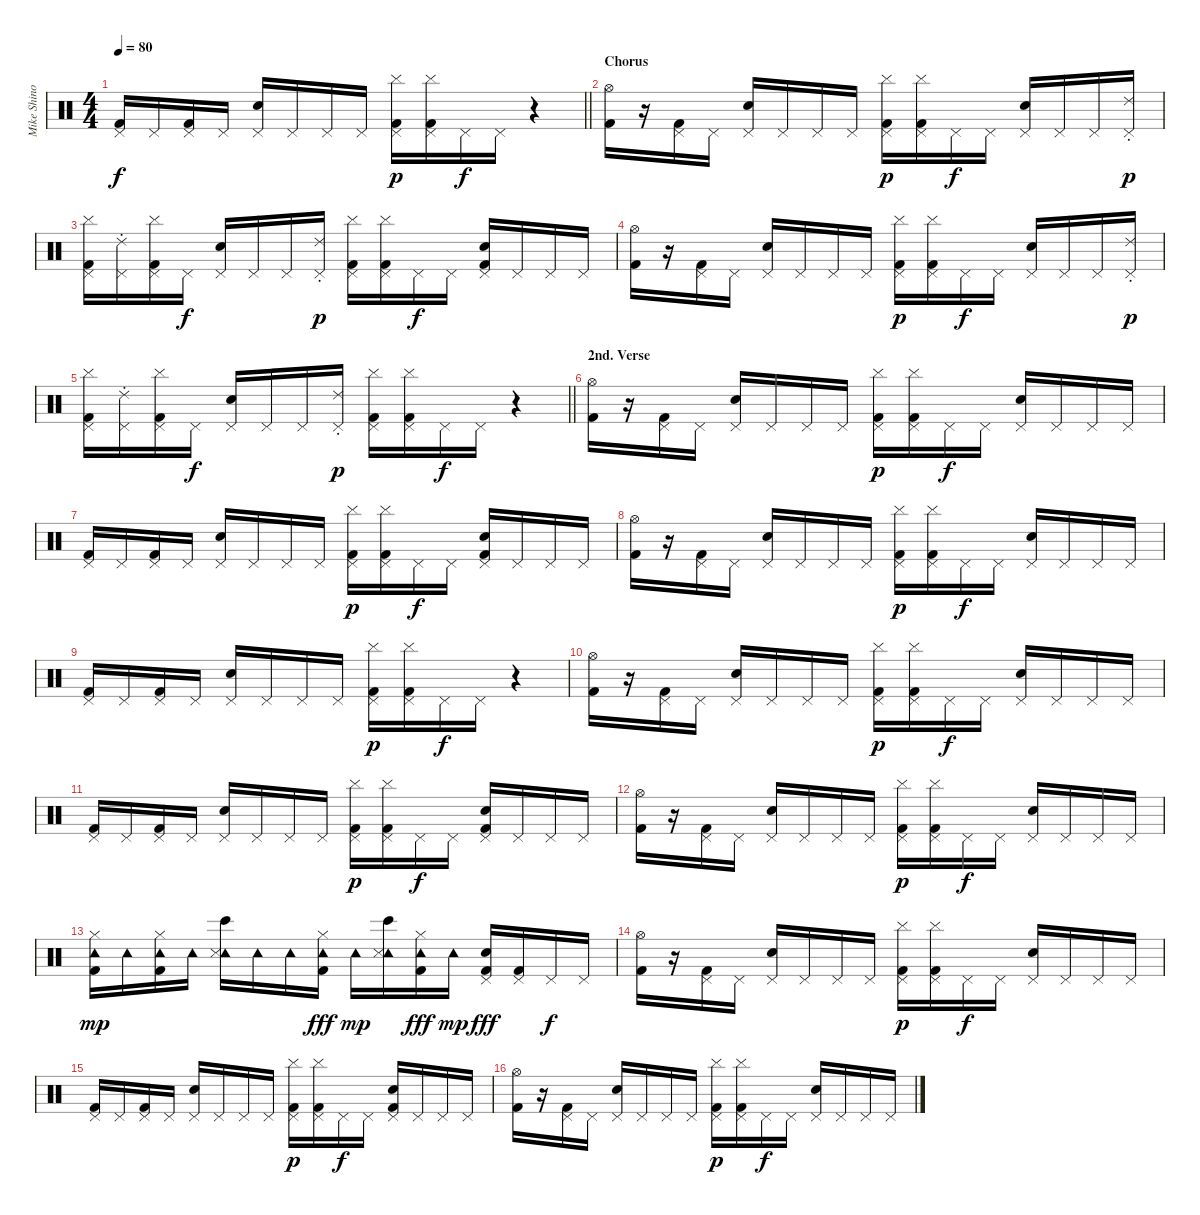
\track ("Mike Shinoda - Percussion" "Mike Shino") {instrument percussion}
\staff {score}
\articulation defaults
\ts (4 4)
\tempo 80
\clef neutral
\barLineRight lightlight
\ks c
("Pedal Hi-Hat (hit)" "Kick (hit) 2").16{dy f} "Pedal Hi-Hat (hit)".16 ("Pedal Hi-Hat (hit)" "Kick (hit) 2").16 "Pedal Hi-Hat (hit)".16 ("Pedal Hi-Hat (hit)" "Electric Snare (hit)").16 "Pedal Hi-Hat (hit)".16 "Pedal Hi-Hat (hit)".16 "Pedal Hi-Hat (hit)".16 ("Pedal Hi-Hat (hit)" "Cymbal (hit)" "Kick (hit) 2").16{dy p} ("Pedal Hi-Hat (hit)" "Cymbal (hit)" "Kick (hit) 2").16 "Pedal Hi-Hat (hit)".16{dy f} "Pedal Hi-Hat (hit)".16 r.4 |
\section ("" "Chorus")
("Hi-Hat (open)" "Kick (hit) 2").16 r.16 ("Pedal Hi-Hat (hit)" "Kick (hit) 2").16 "Pedal Hi-Hat (hit)".16 ("Pedal Hi-Hat (hit)" "Electric Snare (hit)").16 "Pedal Hi-Hat (hit)".16 "Pedal Hi-Hat (hit)".16 "Pedal Hi-Hat (hit)".16 ("Pedal Hi-Hat (hit)" "Cymbal (hit)" "Kick (hit) 2").16{dy p} ("Pedal Hi-Hat (hit)" "Cymbal (hit)" "Kick (hit) 2").16 "Pedal Hi-Hat (hit)".16{dy f} "Pedal Hi-Hat (hit)".16 ("Pedal Hi-Hat (hit)" "Electric Snare (hit)").16 "Pedal Hi-Hat (hit)".16 "Pedal Hi-Hat (hit)".16 ("Pedal Hi-Hat (hit)" "Ride (choke) 2").16{dy p} |
("Pedal Hi-Hat (hit)" "Cymbal (hit)" "Kick (hit) 2").16 ("Pedal Hi-Hat (hit)" "Ride (choke) 2").16 ("Pedal Hi-Hat (hit)" "Cymbal (hit)" "Kick (hit) 2").16 "Pedal Hi-Hat (hit)".16{dy f} ("Pedal Hi-Hat (hit)" "Electric Snare (hit)").16 "Pedal Hi-Hat (hit)".16 "Pedal Hi-Hat (hit)".16 ("Pedal Hi-Hat (hit)" "Ride (choke) 2").16{dy p} ("Pedal Hi-Hat (hit)" "Cymbal (hit)" "Kick (hit) 2").16 ("Pedal Hi-Hat (hit)" "Cymbal (hit)" "Kick (hit) 2").16 "Pedal Hi-Hat (hit)".16{dy f} "Pedal Hi-Hat (hit)".16 ("Pedal Hi-Hat (hit)" "Electric Snare (hit)" "Kick (hit) 2").16 "Pedal Hi-Hat (hit)".16 "Pedal Hi-Hat (hit)".16 "Pedal Hi-Hat (hit)".16 |
("Hi-Hat (open)" "Kick (hit) 2").16 r.16 ("Pedal Hi-Hat (hit)" "Kick (hit) 2").16 "Pedal Hi-Hat (hit)".16 ("Pedal Hi-Hat (hit)" "Electric Snare (hit)").16 "Pedal Hi-Hat (hit)".16 "Pedal Hi-Hat (hit)".16 "Pedal Hi-Hat (hit)".16 ("Pedal Hi-Hat (hit)" "Cymbal (hit)" "Kick (hit) 2").16{dy p} ("Pedal Hi-Hat (hit)" "Cymbal (hit)" "Kick (hit) 2").16 "Pedal Hi-Hat (hit)".16{dy f} "Pedal Hi-Hat (hit)".16 ("Pedal Hi-Hat (hit)" "Electric Snare (hit)").16 "Pedal Hi-Hat (hit)".16 "Pedal Hi-Hat (hit)".16 ("Pedal Hi-Hat (hit)" "Ride (choke) 2").16{dy p} |
\barLineRight lightlight
("Pedal Hi-Hat (hit)" "Cymbal (hit)" "Kick (hit) 2").16 ("Pedal Hi-Hat (hit)" "Ride (choke) 2").16 ("Pedal Hi-Hat (hit)" "Cymbal (hit)" "Kick (hit) 2").16 "Pedal Hi-Hat (hit)".16{dy f} ("Pedal Hi-Hat (hit)" "Electric Snare (hit)").16 "Pedal Hi-Hat (hit)".16 "Pedal Hi-Hat (hit)".16 ("Pedal Hi-Hat (hit)" "Ride (choke) 2").16{dy p} ("Pedal Hi-Hat (hit)" "Cymbal (hit)" "Kick (hit) 2").16 ("Pedal Hi-Hat (hit)" "Cymbal (hit)" "Kick (hit) 2").16 "Pedal Hi-Hat (hit)".16{dy f} "Pedal Hi-Hat (hit)".16 r.4 |
\section ("" "2nd. Verse")
("Hi-Hat (open)" "Kick (hit) 2").16 r.16 ("Pedal Hi-Hat (hit)" "Kick (hit) 2").16 "Pedal Hi-Hat (hit)".16 ("Pedal Hi-Hat (hit)" "Electric Snare (hit)").16 "Pedal Hi-Hat (hit)".16 "Pedal Hi-Hat (hit)".16 "Pedal Hi-Hat (hit)".16 ("Pedal Hi-Hat (hit)" "Cymbal (hit)" "Kick (hit) 2").16{dy p} ("Pedal Hi-Hat (hit)" "Cymbal (hit)" "Kick (hit) 2").16 "Pedal Hi-Hat (hit)".16{dy f} "Pedal Hi-Hat (hit)".16 ("Pedal Hi-Hat (hit)" "Electric Snare (hit)").16 "Pedal Hi-Hat (hit)".16 "Pedal Hi-Hat (hit)".16 "Pedal Hi-Hat (hit)".16 |
("Pedal Hi-Hat (hit)" "Kick (hit) 2").16 "Pedal Hi-Hat (hit)".16 ("Pedal Hi-Hat (hit)" "Kick (hit) 2").16 "Pedal Hi-Hat (hit)".16 ("Pedal Hi-Hat (hit)" "Electric Snare (hit)").16 "Pedal Hi-Hat (hit)".16 "Pedal Hi-Hat (hit)".16 "Pedal Hi-Hat (hit)".16 ("Pedal Hi-Hat (hit)" "Cymbal (hit)" "Kick (hit) 2").16{dy p} ("Pedal Hi-Hat (hit)" "Cymbal (hit)" "Kick (hit) 2").16 "Pedal Hi-Hat (hit)".16{dy f} "Pedal Hi-Hat (hit)".16 ("Pedal Hi-Hat (hit)" "Electric Snare (hit)" "Kick (hit) 2").16 "Pedal Hi-Hat (hit)".16 "Pedal Hi-Hat (hit)".16 "Pedal Hi-Hat (hit)".16 |
("Hi-Hat (open)" "Kick (hit) 2").16 r.16 ("Pedal Hi-Hat (hit)" "Kick (hit) 2").16 "Pedal Hi-Hat (hit)".16 ("Pedal Hi-Hat (hit)" "Electric Snare (hit)").16 "Pedal Hi-Hat (hit)".16 "Pedal Hi-Hat (hit)".16 "Pedal Hi-Hat (hit)".16 ("Pedal Hi-Hat (hit)" "Cymbal (hit)" "Kick (hit) 2").16{dy p} ("Pedal Hi-Hat (hit)" "Cymbal (hit)" "Kick (hit) 2").16 "Pedal Hi-Hat (hit)".16{dy f} "Pedal Hi-Hat (hit)".16 ("Pedal Hi-Hat (hit)" "Electric Snare (hit)").16 "Pedal Hi-Hat (hit)".16 "Pedal Hi-Hat (hit)".16 "Pedal Hi-Hat (hit)".16 |
("Pedal Hi-Hat (hit)" "Kick (hit) 2").16 "Pedal Hi-Hat (hit)".16 ("Pedal Hi-Hat (hit)" "Kick (hit) 2").16 "Pedal Hi-Hat (hit)".16 ("Pedal Hi-Hat (hit)" "Electric Snare (hit)").16 "Pedal Hi-Hat (hit)".16 "Pedal Hi-Hat (hit)".16 "Pedal Hi-Hat (hit)".16 ("Pedal Hi-Hat (hit)" "Cymbal (hit)" "Kick (hit) 2").16{dy p} ("Pedal Hi-Hat (hit)" "Cymbal (hit)" "Kick (hit) 2").16 "Pedal Hi-Hat (hit)".16{dy f} "Pedal Hi-Hat (hit)".16 r.4 |
("Hi-Hat (open)" "Kick (hit) 2").16 r.16 ("Pedal Hi-Hat (hit)" "Kick (hit) 2").16 "Pedal Hi-Hat (hit)".16 ("Pedal Hi-Hat (hit)" "Electric Snare (hit)").16 "Pedal Hi-Hat (hit)".16 "Pedal Hi-Hat (hit)".16 "Pedal Hi-Hat (hit)".16 ("Pedal Hi-Hat (hit)" "Cymbal (hit)" "Kick (hit) 2").16{dy p} ("Pedal Hi-Hat (hit)" "Cymbal (hit)" "Kick (hit) 2").16 "Pedal Hi-Hat (hit)".16{dy f} "Pedal Hi-Hat (hit)".16 ("Pedal Hi-Hat (hit)" "Electric Snare (hit)").16 "Pedal Hi-Hat (hit)".16 "Pedal Hi-Hat (hit)".16 "Pedal Hi-Hat (hit)".16 |
("Pedal Hi-Hat (hit)" "Kick (hit) 2").16 "Pedal Hi-Hat (hit)".16 ("Pedal Hi-Hat (hit)" "Kick (hit) 2").16 "Pedal Hi-Hat (hit)".16 ("Pedal Hi-Hat (hit)" "Electric Snare (hit)").16 "Pedal Hi-Hat (hit)".16 "Pedal Hi-Hat (hit)".16 "Pedal Hi-Hat (hit)".16 ("Pedal Hi-Hat (hit)" "Cymbal (hit)" "Kick (hit) 2").16{dy p} ("Pedal Hi-Hat (hit)" "Cymbal (hit)" "Kick (hit) 2").16 "Pedal Hi-Hat (hit)".16{dy f} "Pedal Hi-Hat (hit)".16 ("Pedal Hi-Hat (hit)" "Electric Snare (hit)" "Kick (hit) 2").16 "Pedal Hi-Hat (hit)".16 "Pedal Hi-Hat (hit)".16 "Pedal Hi-Hat (hit)".16 |
("Hi-Hat (open)" "Kick (hit) 2").16 r.16 ("Pedal Hi-Hat (hit)" "Kick (hit) 2").16 "Pedal Hi-Hat (hit)".16 ("Pedal Hi-Hat (hit)" "Electric Snare (hit)").16 "Pedal Hi-Hat (hit)".16 "Pedal Hi-Hat (hit)".16 "Pedal Hi-Hat (hit)".16 ("Pedal Hi-Hat (hit)" "Cymbal (hit)" "Kick (hit) 2").16{dy p} ("Pedal Hi-Hat (hit)" "Cymbal (hit)" "Kick (hit) 2").16 "Pedal Hi-Hat (hit)".16{dy f} "Pedal Hi-Hat (hit)".16 ("Pedal Hi-Hat (hit)" "Electric Snare (hit)").16 "Pedal Hi-Hat (hit)".16 "Pedal Hi-Hat (hit)".16 "Pedal Hi-Hat (hit)".16 |
("Tambourine (hit)" "Hi-Hat (closed)" "Kick (hit) 2").16{dy mp} "Tambourine (hit)".16 ("Tambourine (hit)" "Hi-Hat (closed)" "Kick (hit) 2").16 "Tambourine (hit)".16 ("Tambourine (hit)" "Snare (side stick) 3" "Bongo High (hit)").16 "Tambourine (hit)".16 "Tambourine (hit)".16 ("Tambourine (hit)" "Hi-Hat (closed)" "Kick (hit) 2").16{dy fff} "Tambourine (hit)".16{dy mp} ("Tambourine (hit)" "Snare (side stick) 3" "Bongo High (hit)").16 ("Tambourine (hit)" "Hi-Hat (closed)" "Kick (hit) 2").16{dy fff} "Tambourine (hit)".16{dy mp} ("Pedal Hi-Hat (hit)" "Electric Snare (hit)" "Kick (hit) 2").16{dy fff} ("Pedal Hi-Hat (hit)" "Kick (hit) 2").16 "Pedal Hi-Hat (hit)".16{dy f} "Pedal Hi-Hat (hit)".16 |
("Hi-Hat (open)" "Kick (hit) 2").16 r.16 ("Pedal Hi-Hat (hit)" "Kick (hit) 2").16 "Pedal Hi-Hat (hit)".16 ("Pedal Hi-Hat (hit)" "Electric Snare (hit)").16 "Pedal Hi-Hat (hit)".16 "Pedal Hi-Hat (hit)".16 "Pedal Hi-Hat (hit)".16 ("Pedal Hi-Hat (hit)" "Cymbal (hit)" "Kick (hit) 2").16{dy p} ("Pedal Hi-Hat (hit)" "Cymbal (hit)" "Kick (hit) 2").16 "Pedal Hi-Hat (hit)".16{dy f} "Pedal Hi-Hat (hit)".16 ("Pedal Hi-Hat (hit)" "Electric Snare (hit)").16 "Pedal Hi-Hat (hit)".16 "Pedal Hi-Hat (hit)".16 "Pedal Hi-Hat (hit)".16 |
("Pedal Hi-Hat (hit)" "Kick (hit) 2").16 "Pedal Hi-Hat (hit)".16 ("Pedal Hi-Hat (hit)" "Kick (hit) 2").16 "Pedal Hi-Hat (hit)".16 ("Pedal Hi-Hat (hit)" "Electric Snare (hit)").16 "Pedal Hi-Hat (hit)".16 "Pedal Hi-Hat (hit)".16 "Pedal Hi-Hat (hit)".16 ("Pedal Hi-Hat (hit)" "Cymbal (hit)" "Kick (hit) 2").16{dy p} ("Pedal Hi-Hat (hit)" "Cymbal (hit)" "Kick (hit) 2").16 "Pedal Hi-Hat (hit)".16{dy f} "Pedal Hi-Hat (hit)".16 ("Pedal Hi-Hat (hit)" "Electric Snare (hit)" "Kick (hit) 2").16 "Pedal Hi-Hat (hit)".16 "Pedal Hi-Hat (hit)".16 "Pedal Hi-Hat (hit)".16 |
("Hi-Hat (open)" "Kick (hit) 2").16 r.16 ("Pedal Hi-Hat (hit)" "Kick (hit) 2").16 "Pedal Hi-Hat (hit)".16 ("Pedal Hi-Hat (hit)" "Electric Snare (hit)").16 "Pedal Hi-Hat (hit)".16 "Pedal Hi-Hat (hit)".16 "Pedal Hi-Hat (hit)".16 ("Pedal Hi-Hat (hit)" "Cymbal (hit)" "Kick (hit) 2").16{dy p} ("Pedal Hi-Hat (hit)" "Cymbal (hit)" "Kick (hit) 2").16 "Pedal Hi-Hat (hit)".16{dy f} "Pedal Hi-Hat (hit)".16 ("Pedal Hi-Hat (hit)" "Electric Snare (hit)").16 "Pedal Hi-Hat (hit)".16 "Pedal Hi-Hat (hit)".16 "Pedal Hi-Hat (hit)".16
